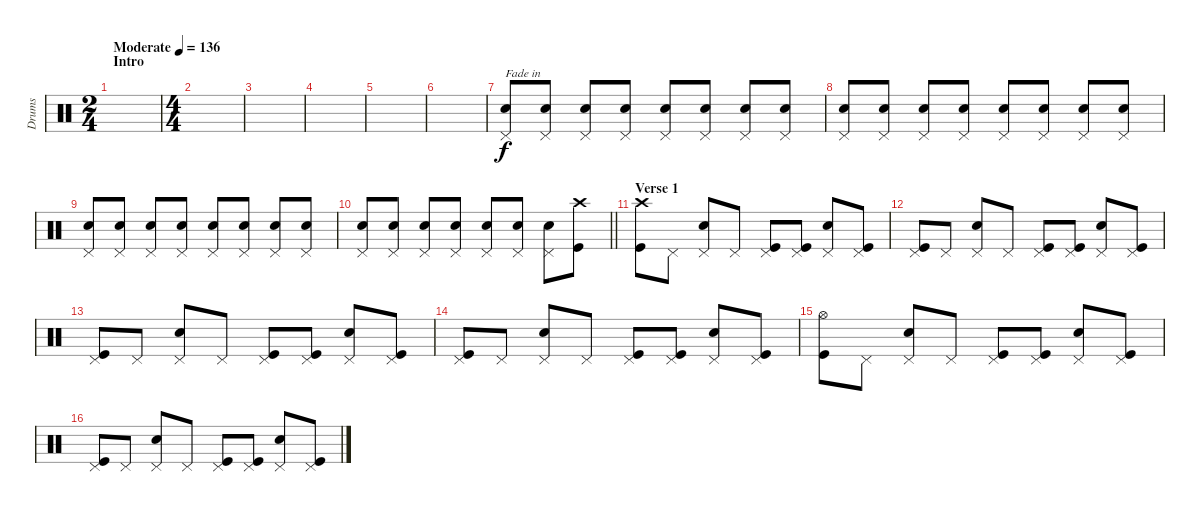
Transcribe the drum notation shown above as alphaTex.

\track ("Drums" "Drums") {instrument percussion}
\staff {score}
\articulation defaults
\ts (2 4)
\section ("" "Intro")
\tempo (136 "Moderate")
\clef neutral
\ks c
|
\ts (4 4)
|
|
|
|
|
("Pedal Hi-Hat (hit)" "Electric Snare (hit)").8{txt "Fade in" volume 13} ("Pedal Hi-Hat (hit)" "Electric Snare (hit)").8 ("Pedal Hi-Hat (hit)" "Electric Snare (hit)").8 ("Pedal Hi-Hat (hit)" "Electric Snare (hit)").8 ("Pedal Hi-Hat (hit)" "Electric Snare (hit)").8 ("Pedal Hi-Hat (hit)" "Electric Snare (hit)").8 ("Pedal Hi-Hat (hit)" "Electric Snare (hit)").8 ("Pedal Hi-Hat (hit)" "Electric Snare (hit)").8 |
("Pedal Hi-Hat (hit)" "Electric Snare (hit)").8 ("Pedal Hi-Hat (hit)" "Electric Snare (hit)").8 ("Pedal Hi-Hat (hit)" "Electric Snare (hit)").8 ("Pedal Hi-Hat (hit)" "Electric Snare (hit)").8 ("Pedal Hi-Hat (hit)" "Electric Snare (hit)").8 ("Pedal Hi-Hat (hit)" "Electric Snare (hit)").8 ("Pedal Hi-Hat (hit)" "Electric Snare (hit)").8 ("Pedal Hi-Hat (hit)" "Electric Snare (hit)").8 |
("Pedal Hi-Hat (hit)" "Electric Snare (hit)").8 ("Pedal Hi-Hat (hit)" "Electric Snare (hit)").8 ("Pedal Hi-Hat (hit)" "Electric Snare (hit)").8 ("Pedal Hi-Hat (hit)" "Electric Snare (hit)").8 ("Pedal Hi-Hat (hit)" "Electric Snare (hit)").8 ("Pedal Hi-Hat (hit)" "Electric Snare (hit)").8 ("Pedal Hi-Hat (hit)" "Electric Snare (hit)").8 ("Pedal Hi-Hat (hit)" "Electric Snare (hit)").8 |
\barLineRight lightlight
("Pedal Hi-Hat (hit)" "Electric Snare (hit)").8 ("Pedal Hi-Hat (hit)" "Electric Snare (hit)").8 ("Pedal Hi-Hat (hit)" "Electric Snare (hit)").8 ("Pedal Hi-Hat (hit)" "Electric Snare (hit)").8 ("Pedal Hi-Hat (hit)" "Electric Snare (hit)").8 ("Pedal Hi-Hat (hit)" "Electric Snare (hit)").8 ("Pedal Hi-Hat (hit)" "Electric Snare (hit)").8 ("Crash high (hit)" "Kick (hit)").8 |
\section ("" "Verse 1")
("Crash high (hit)" "Kick (hit)").8 "Pedal Hi-Hat (hit)".8 ("Pedal Hi-Hat (hit)" "Electric Snare (hit)").8 "Pedal Hi-Hat (hit)".8 ("Pedal Hi-Hat (hit)" "Kick (hit)").8 ("Pedal Hi-Hat (hit)" "Kick (hit)").8 ("Pedal Hi-Hat (hit)" "Electric Snare (hit)").8 ("Pedal Hi-Hat (hit)" "Kick (hit)").8 |
("Pedal Hi-Hat (hit)" "Kick (hit)").8 "Pedal Hi-Hat (hit)".8 ("Pedal Hi-Hat (hit)" "Electric Snare (hit)").8 "Pedal Hi-Hat (hit)".8 ("Pedal Hi-Hat (hit)" "Kick (hit)").8 ("Pedal Hi-Hat (hit)" "Kick (hit)").8 ("Pedal Hi-Hat (hit)" "Electric Snare (hit)").8 ("Pedal Hi-Hat (hit)" "Kick (hit)").8 |
("Pedal Hi-Hat (hit)" "Kick (hit)").8 "Pedal Hi-Hat (hit)".8 ("Pedal Hi-Hat (hit)" "Electric Snare (hit)").8 "Pedal Hi-Hat (hit)".8 ("Pedal Hi-Hat (hit)" "Kick (hit)").8 ("Pedal Hi-Hat (hit)" "Kick (hit)").8 ("Pedal Hi-Hat (hit)" "Electric Snare (hit)").8 ("Pedal Hi-Hat (hit)" "Kick (hit)").8 |
("Pedal Hi-Hat (hit)" "Kick (hit)").8 "Pedal Hi-Hat (hit)".8 ("Pedal Hi-Hat (hit)" "Electric Snare (hit)").8 "Pedal Hi-Hat (hit)".8 ("Pedal Hi-Hat (hit)" "Kick (hit)").8 ("Pedal Hi-Hat (hit)" "Kick (hit)").8 ("Pedal Hi-Hat (hit)" "Electric Snare (hit)").8 ("Pedal Hi-Hat (hit)" "Kick (hit)").8 |
("Hi-Hat (open)" "Kick (hit)").8 "Pedal Hi-Hat (hit)".8 ("Pedal Hi-Hat (hit)" "Electric Snare (hit)").8 "Pedal Hi-Hat (hit)".8 ("Pedal Hi-Hat (hit)" "Kick (hit)").8 ("Pedal Hi-Hat (hit)" "Kick (hit)").8 ("Pedal Hi-Hat (hit)" "Electric Snare (hit)").8 ("Pedal Hi-Hat (hit)" "Kick (hit)").8 |
("Pedal Hi-Hat (hit)" "Kick (hit)").8 "Pedal Hi-Hat (hit)".8 ("Pedal Hi-Hat (hit)" "Electric Snare (hit)").8 "Pedal Hi-Hat (hit)".8 ("Pedal Hi-Hat (hit)" "Kick (hit)").8 ("Pedal Hi-Hat (hit)" "Kick (hit)").8 ("Pedal Hi-Hat (hit)" "Electric Snare (hit)").8 ("Pedal Hi-Hat (hit)" "Kick (hit)").8
